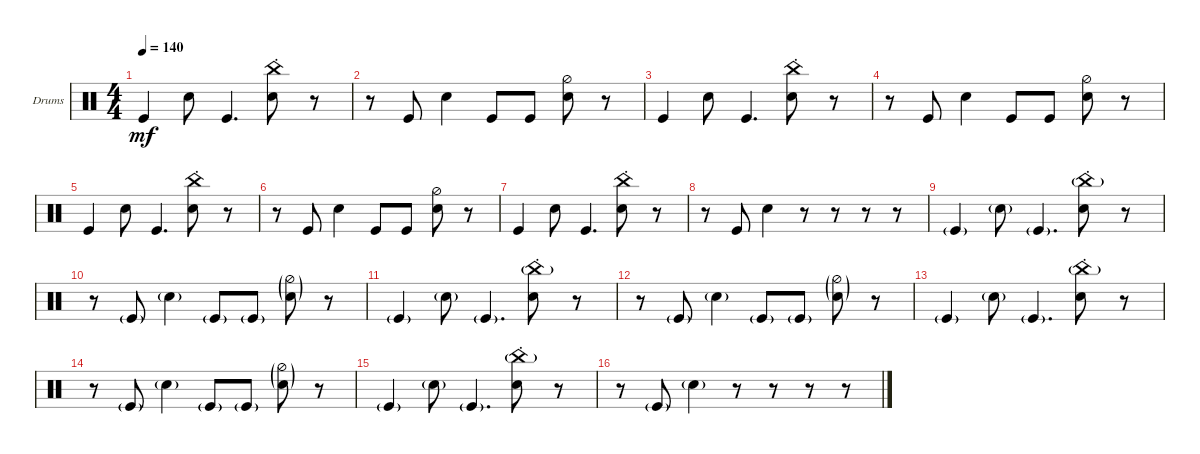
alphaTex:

\defaultSystemsLayout 4
\bracketExtendMode groupsimilarinstruments
\firstSystemTrackNameOrientation horizontal
\otherSystemsTrackNameOrientation horizontal
\track ("Drumkit" "Drums") {instrument percussion}
\staff {score}
\articulation defaults
\ts (4 4)
\tempo 140
\clef neutral
\ks c "Kick (hit)".4{dy mf} "Snare (hit) 2".8 "Kick (hit)".4{d}
("Snare (hit) 2" "China (hit)"{st}).8 r.8 |
r.8 "Kick (hit)".8 "Snare (hit) 2".4 "Kick (hit)".8 "Kick (hit)".8 ("Snare (hit) 2" "Hi-Hat (half)").8 r.8 |
"Kick (hit)".4 "Snare (hit) 2".8 "Kick (hit)".4{d} ("Snare (hit) 2" "China (hit)"{st}).8 r.8 |
r.8 "Kick (hit)".8 "Snare (hit) 2".4 "Kick (hit)".8 "Kick (hit)".8 ("Snare (hit) 2" "Hi-Hat (half)").8 r.8 |
"Kick (hit)".4 "Snare (hit) 2".8 "Kick (hit)".4{d} ("Snare (hit) 2" "China (hit)"{st}).8 r.8 |
r.8 "Kick (hit)".8 "Snare (hit) 2".4 "Kick (hit)".8 "Kick (hit)".8 ("Snare (hit) 2" "Hi-Hat (half)").8 r.8 |
"Kick (hit)".4 "Snare (hit) 2".8 "Kick (hit)".4{d} ("Snare (hit) 2" "China (hit)"{st}).8 r.8 |
r.8 "Kick (hit)".8 "Snare (hit) 2".4 r.8 r.8 r.8 r.8 |
"Kick (hit)"{g}.4 "Snare (hit) 2"{g}.8 "Kick (hit)"{g}.4{d} ("Snare (hit) 2"{st} "China (hit)"{g}).8 r.8 |
r.8 "Kick (hit)"{g}.8 "Snare (hit) 2"{g}.4 "Kick (hit)"{g}.8 "Kick (hit)"{g}.8 ("Snare (hit) 2"{g} "Hi-Hat (half)"{g}).8 r.8 |
"Kick (hit)"{g}.4 "Snare (hit) 2"{g}.8 "Kick (hit)"{g}.4{d} ("Snare (hit) 2"{st} "China (hit)"{g}).8 r.8 |
r.8 "Kick (hit)"{g}.8 "Snare (hit) 2"{g}.4 "Kick (hit)"{g}.8 "Kick (hit)"{g}.8 ("Snare (hit) 2"{g} "Hi-Hat (half)"{g}).8 r.8 |
"Kick (hit)"{g}.4 "Snare (hit) 2"{g}.8 "Kick (hit)"{g}.4{d} ("Snare (hit) 2"{st} "China (hit)"{g}).8 r.8 |
r.8 "Kick (hit)"{g}.8 "Snare (hit) 2"{g}.4 "Kick (hit)"{g}.8 "Kick (hit)"{g}.8 ("Snare (hit) 2"{g} "Hi-Hat (half)"{g}).8 r.8 |
"Kick (hit)"{g}.4 "Snare (hit) 2"{g}.8 "Kick (hit)"{g}.4{d} ("Snare (hit) 2"{st} "China (hit)"{g}).8 r.8 |
r.8 "Kick (hit)"{g}.8 "Snare (hit) 2"{g}.4 r.8 r.8 r.8 r.8
